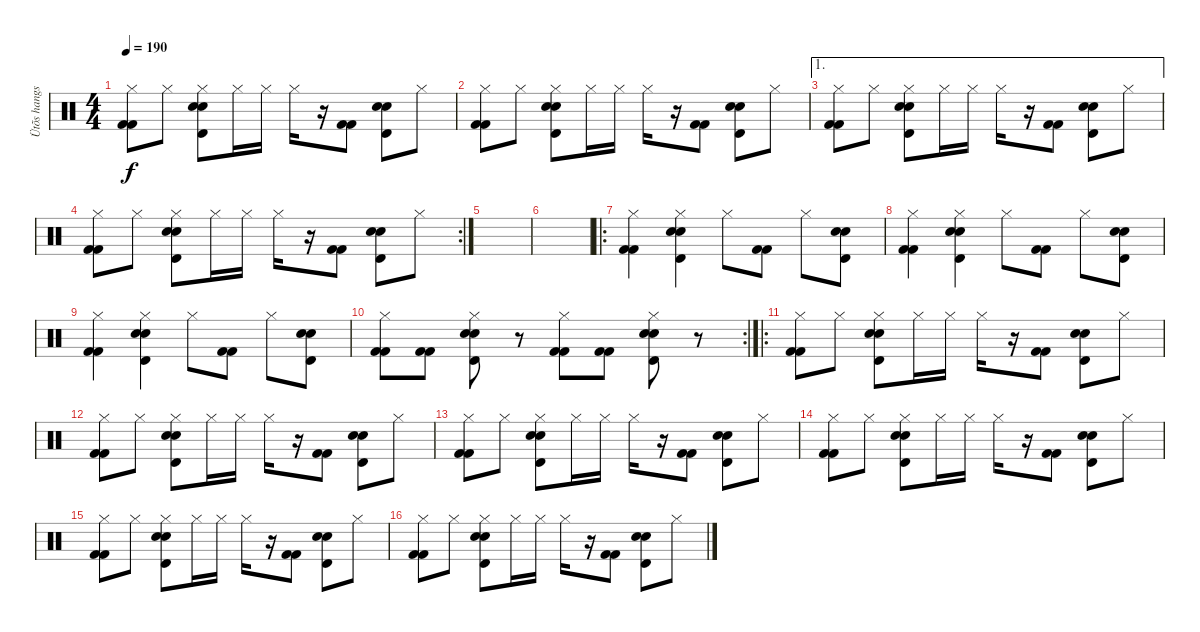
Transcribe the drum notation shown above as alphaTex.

\track ("Ütõs hangszer" "Ütõs hangs") {instrument percussion}
\staff {score}
\articulation defaults
\ts (4 4)
\tempo 190
\clef neutral
\ks c
("Hi-Hat (closed)" "Kick (hit) 2" "Kick (hit) 2").8{dy f} "Hi-Hat (closed)".8 ("Hi-Hat (closed)" "Timbale high (hit)" "Electric Snare (hit)" "Electric Snare (hit)").8 "Hi-Hat (closed)".16 "Hi-Hat (closed)".16 "Hi-Hat (closed)".16 r.16 ("Kick (hit) 2" "Kick (hit) 2").8 ("Timbale high (hit)" "Electric Snare (hit)" "Electric Snare (hit)").8 "Hi-Hat (closed)".8 |
("Hi-Hat (closed)" "Kick (hit) 2" "Kick (hit) 2").8 "Hi-Hat (closed)".8 ("Hi-Hat (closed)" "Timbale high (hit)" "Electric Snare (hit)" "Electric Snare (hit)").8 "Hi-Hat (closed)".16 "Hi-Hat (closed)".16 "Hi-Hat (closed)".16 r.16 ("Kick (hit) 2" "Kick (hit) 2").8 ("Timbale high (hit)" "Electric Snare (hit)" "Electric Snare (hit)").8 "Hi-Hat (closed)".8 |
\ae 1
("Hi-Hat (closed)" "Kick (hit) 2" "Kick (hit) 2").8 "Hi-Hat (closed)".8 ("Hi-Hat (closed)" "Timbale high (hit)" "Electric Snare (hit)" "Electric Snare (hit)").8 "Hi-Hat (closed)".16 "Hi-Hat (closed)".16 "Hi-Hat (closed)".16 r.16 ("Kick (hit) 2" "Kick (hit) 2").8 ("Timbale high (hit)" "Electric Snare (hit)" "Electric Snare (hit)").8 "Hi-Hat (closed)".8 |
\rc 2
("Hi-Hat (closed)" "Kick (hit) 2" "Kick (hit) 2").8 "Hi-Hat (closed)".8 ("Hi-Hat (closed)" "Timbale high (hit)" "Electric Snare (hit)" "Electric Snare (hit)").8 "Hi-Hat (closed)".16 "Hi-Hat (closed)".16 "Hi-Hat (closed)".16 r.16 ("Kick (hit) 2" "Kick (hit) 2").8 ("Timbale high (hit)" "Electric Snare (hit)" "Electric Snare (hit)").8 "Hi-Hat (closed)".8 |
|
|
\ro
("Hi-Hat (closed)" "Kick (hit) 2" "Kick (hit) 2").4 ("Hi-Hat (closed)" "Timbale high (hit)" "Electric Snare (hit)" "Electric Snare (hit)").4 "Hi-Hat (closed)".8 ("Kick (hit) 2" "Kick (hit) 2").8 "Hi-Hat (closed)".8 ("Timbale high (hit)" "Electric Snare (hit)" "Electric Snare (hit)").8 |
("Hi-Hat (closed)" "Kick (hit) 2" "Kick (hit) 2").4 ("Hi-Hat (closed)" "Timbale high (hit)" "Electric Snare (hit)" "Electric Snare (hit)").4 "Hi-Hat (closed)".8 ("Kick (hit) 2" "Kick (hit) 2").8 "Hi-Hat (closed)".8 ("Timbale high (hit)" "Electric Snare (hit)" "Electric Snare (hit)").8 |
("Hi-Hat (closed)" "Kick (hit) 2" "Kick (hit) 2").4 ("Hi-Hat (closed)" "Timbale high (hit)" "Electric Snare (hit)" "Electric Snare (hit)").4 "Hi-Hat (closed)".8 ("Kick (hit) 2" "Kick (hit) 2").8 "Hi-Hat (closed)".8 ("Timbale high (hit)" "Electric Snare (hit)" "Electric Snare (hit)").8 |
\rc 2
("Hi-Hat (closed)" "Kick (hit) 2" "Kick (hit) 2").8 ("Kick (hit) 2" "Kick (hit) 2").8 ("Hi-Hat (closed)" "Timbale high (hit)" "Electric Snare (hit)" "Electric Snare (hit)").8 r.8 ("Hi-Hat (closed)" "Kick (hit) 2" "Kick (hit) 2").8 ("Kick (hit) 2" "Kick (hit) 2").8 ("Hi-Hat (closed)" "Timbale high (hit)" "Electric Snare (hit)" "Electric Snare (hit)").8 r.8 |
\ro
("Hi-Hat (closed)" "Kick (hit) 2" "Kick (hit) 2").8 "Hi-Hat (closed)".8 ("Hi-Hat (closed)" "Timbale high (hit)" "Electric Snare (hit)" "Electric Snare (hit)").8 "Hi-Hat (closed)".16 "Hi-Hat (closed)".16 "Hi-Hat (closed)".16 r.16 ("Kick (hit) 2" "Kick (hit) 2").8 ("Timbale high (hit)" "Electric Snare (hit)" "Electric Snare (hit)").8 "Hi-Hat (closed)".8 |
("Hi-Hat (closed)" "Kick (hit) 2" "Kick (hit) 2").8 "Hi-Hat (closed)".8 ("Hi-Hat (closed)" "Timbale high (hit)" "Electric Snare (hit)" "Electric Snare (hit)").8 "Hi-Hat (closed)".16 "Hi-Hat (closed)".16 "Hi-Hat (closed)".16 r.16 ("Kick (hit) 2" "Kick (hit) 2").8 ("Timbale high (hit)" "Electric Snare (hit)" "Electric Snare (hit)").8 "Hi-Hat (closed)".8 |
("Hi-Hat (closed)" "Kick (hit) 2" "Kick (hit) 2").8 "Hi-Hat (closed)".8 ("Hi-Hat (closed)" "Timbale high (hit)" "Electric Snare (hit)" "Electric Snare (hit)").8 "Hi-Hat (closed)".16 "Hi-Hat (closed)".16 "Hi-Hat (closed)".16 r.16 ("Kick (hit) 2" "Kick (hit) 2").8 ("Timbale high (hit)" "Electric Snare (hit)" "Electric Snare (hit)").8 "Hi-Hat (closed)".8 |
("Hi-Hat (closed)" "Kick (hit) 2" "Kick (hit) 2").8 "Hi-Hat (closed)".8 ("Hi-Hat (closed)" "Timbale high (hit)" "Electric Snare (hit)" "Electric Snare (hit)").8 "Hi-Hat (closed)".16 "Hi-Hat (closed)".16 "Hi-Hat (closed)".16 r.16 ("Kick (hit) 2" "Kick (hit) 2").8 ("Timbale high (hit)" "Electric Snare (hit)" "Electric Snare (hit)").8 "Hi-Hat (closed)".8 |
("Hi-Hat (closed)" "Kick (hit) 2" "Kick (hit) 2").8 "Hi-Hat (closed)".8 ("Hi-Hat (closed)" "Timbale high (hit)" "Electric Snare (hit)" "Electric Snare (hit)").8 "Hi-Hat (closed)".16 "Hi-Hat (closed)".16 "Hi-Hat (closed)".16 r.16 ("Kick (hit) 2" "Kick (hit) 2").8 ("Timbale high (hit)" "Electric Snare (hit)" "Electric Snare (hit)").8 "Hi-Hat (closed)".8 |
("Hi-Hat (closed)" "Kick (hit) 2" "Kick (hit) 2").8 "Hi-Hat (closed)".8 ("Hi-Hat (closed)" "Timbale high (hit)" "Electric Snare (hit)" "Electric Snare (hit)").8 "Hi-Hat (closed)".16 "Hi-Hat (closed)".16 "Hi-Hat (closed)".16 r.16 ("Kick (hit) 2" "Kick (hit) 2").8 ("Timbale high (hit)" "Electric Snare (hit)" "Electric Snare (hit)").8 "Hi-Hat (closed)".8
